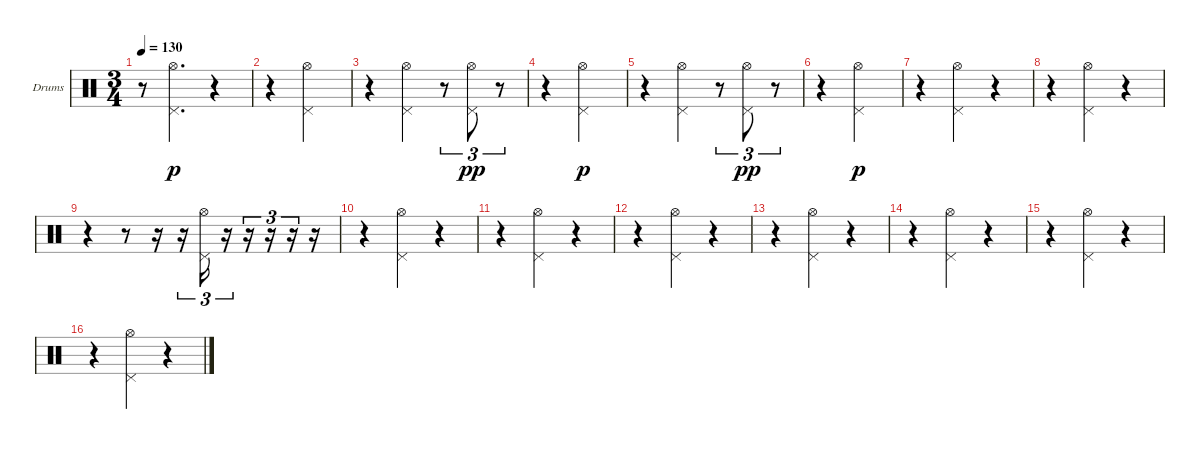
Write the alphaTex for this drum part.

\bracketExtendMode groupsimilarinstruments
\firstSystemTrackNameOrientation horizontal
\otherSystemsTrackNameOrientation horizontal
\track ("HH" "Drums") {instrument percussion}
\staff {score}
\articulation defaults
\ts (3 4)
\tempo 130
\clef neutral
\ks c
r.8{dy p} ("Pedal Hi-Hat (hit)" "Hi-Hat (open)").4{d} r.4 |
r.4 ("Pedal Hi-Hat (hit)" "Hi-Hat (open)").2 |
r.4 ("Pedal Hi-Hat (hit)" "Hi-Hat (open)").4 r.8{tu (3 2)} ("Pedal Hi-Hat (hit)" "Hi-Hat (open)").8{tu (3 2) dy pp} r.8{tu (3 2)} |
r.4 ("Pedal Hi-Hat (hit)" "Hi-Hat (open)").2{dy p} |
r.4 ("Pedal Hi-Hat (hit)" "Hi-Hat (open)").4 r.8{tu (3 2)} ("Pedal Hi-Hat (hit)" "Hi-Hat (open)").8{tu (3 2) dy pp} r.8{tu (3 2)} |
r.4 ("Pedal Hi-Hat (hit)" "Hi-Hat (open)").2{dy p} |
r.4 ("Pedal Hi-Hat (hit)" "Hi-Hat (open)").4 r.4 |
r.4 ("Pedal Hi-Hat (hit)" "Hi-Hat (open)").4 r.4 |
r.4 r.8 r.16 r.16{tu (3 2)} ("Pedal Hi-Hat (hit)" "Hi-Hat (open)").16{tu (3 2)} r.16{tu (3 2)} r.16{tu (3 2)} r.16{tu (3 2)} r.16{tu (3 2)} r.16 |
r.4 ("Pedal Hi-Hat (hit)" "Hi-Hat (open)").4 r.4 |
r.4 ("Pedal Hi-Hat (hit)" "Hi-Hat (open)").4 r.4 |
r.4 ("Pedal Hi-Hat (hit)" "Hi-Hat (open)").4 r.4 |
r.4 ("Pedal Hi-Hat (hit)" "Hi-Hat (open)").4 r.4 |
r.4 ("Pedal Hi-Hat (hit)" "Hi-Hat (open)").4 r.4 |
r.4 ("Pedal Hi-Hat (hit)" "Hi-Hat (open)").4 r.4 |
r.4 ("Pedal Hi-Hat (hit)" "Hi-Hat (open)").4 r.4
